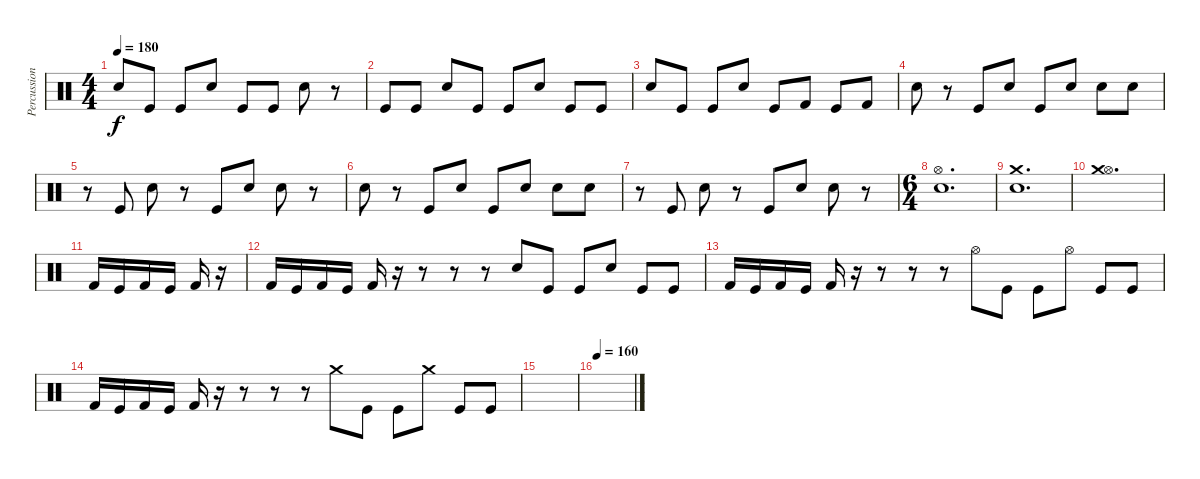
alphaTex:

\track ("Percussion" "Percussion") {instrument percussion}
\staff {score}
\articulation defaults
\ts (4 4)
\tempo 180
\clef neutral
\ks c "Snare (hit) 2".8{dy f} "Kick (hit)".8 "Kick (hit)".8 "Snare (hit) 2".8 "Kick (hit)".8 "Kick (hit)".8 "Snare (hit) 2".8
r.8 |
"Kick (hit)".8 "Kick (hit)".8 "Snare (hit) 2".8 "Kick (hit)".8 "Kick (hit)".8 "Snare (hit) 2".8 "Kick (hit)".8 "Kick (hit)".8 |
"Snare (hit) 2".8 "Kick (hit)".8 "Kick (hit)".8 "Snare (hit) 2".8 "Kick (hit)".8 "Kick (hit) 2".8 "Kick (hit)".8 "Kick (hit) 2".8 |
"Snare (hit) 2".8 r.8 "Kick (hit)".8 "Snare (hit) 2".8 "Kick (hit)".8 "Snare (hit) 2".8 "Snare (hit) 2".8 "Snare (hit) 2".8 |
r.8 "Kick (hit)".8 "Snare (hit) 2".8 r.8 "Kick (hit)".8 "Snare (hit) 2".8 "Snare (hit) 2".8 r.8 |
"Snare (hit) 2".8 r.8 "Kick (hit)".8 "Snare (hit) 2".8 "Kick (hit)".8 "Snare (hit) 2".8 "Snare (hit) 2".8 "Snare (hit) 2".8 |
r.8 "Kick (hit)".8 "Snare (hit) 2".8 r.8 "Kick (hit)".8 "Snare (hit) 2".8 "Snare (hit) 2".8 r.8 |
\ts (6 4)
("Snare (hit) 2" "Hi-Hat (open)").1{d} |
("Snare (hit) 2" "Crash medium (hit)").1{d} |
("Hi-Hat (open)" "Crash medium (hit)").1{d} |
"Kick (hit) 2".16 "Kick (hit)".16 "Kick (hit) 2".16 "Kick (hit)".16 "Kick (hit) 2".16 r.16 |
"Kick (hit) 2".16 "Kick (hit)".16 "Kick (hit) 2".16 "Kick (hit)".16 "Kick (hit) 2".16 r.16 r.8 r.8 r.8 "Snare (hit) 2".8 "Kick (hit)".8 "Kick (hit)".8 "Snare (hit) 2".8 "Kick (hit)".8 "Kick (hit)".8 |
"Kick (hit) 2".16 "Kick (hit)".16 "Kick (hit) 2".16 "Kick (hit)".16 "Kick (hit) 2".16 r.16 r.8 r.8 r.8 "Hi-Hat (open)".8 "Kick (hit)".8 "Kick (hit)".8 "Hi-Hat (open)".8 "Kick (hit)".8 "Kick (hit)".8 |
"Kick (hit) 2".16 "Kick (hit)".16 "Kick (hit) 2".16 "Kick (hit)".16 "Kick (hit) 2".16 r.16 r.8 r.8 r.8 "Crash medium (hit)".8 "Kick (hit)".8 "Kick (hit)".8 "Crash medium (hit)".8 "Kick (hit)".8 "Kick (hit)".8 |
|
\tempo 160
